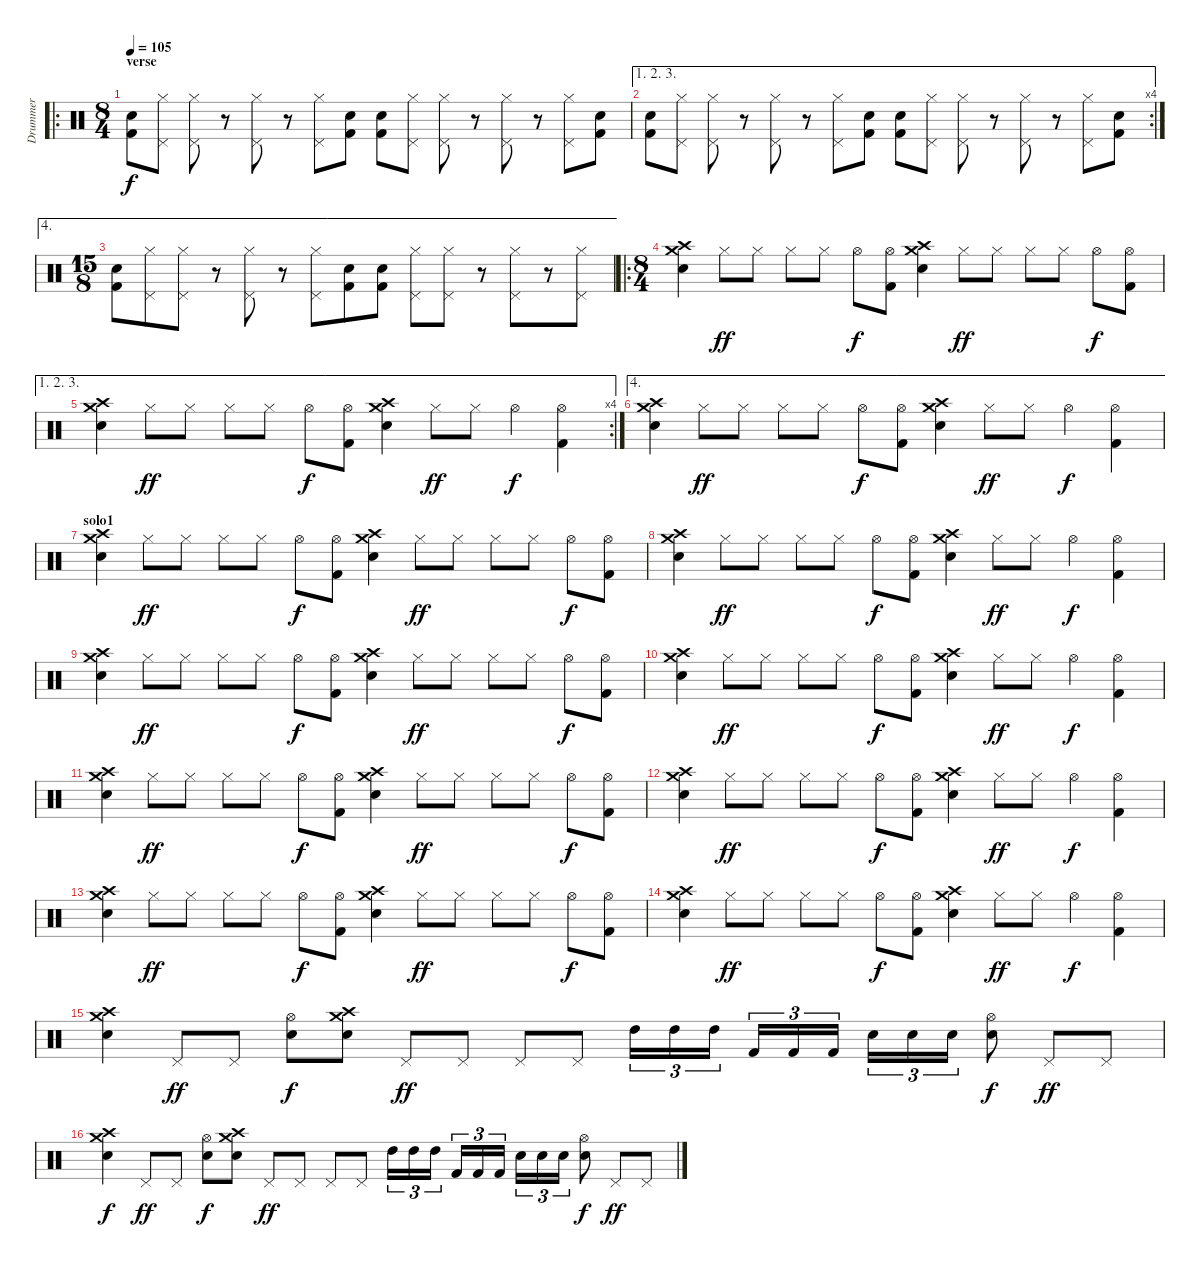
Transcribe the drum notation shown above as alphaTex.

\track ("Drummer" "Drummer") {instrument percussion}
\staff {score}
\articulation defaults
\ro
\ts (8 4)
\section ("" "verse")
\tempo 105
\clef neutral
\ks c
("Kick (hit) 2" "Electric Snare (hit)").8{dy f} ("Pedal Hi-Hat (hit)" "Hi-Hat (closed)").8 ("Hi-Hat (closed)" "Pedal Hi-Hat (hit)").8 r.8 ("Pedal Hi-Hat (hit)" "Hi-Hat (closed)").8 r.8 ("Pedal Hi-Hat (hit)" "Hi-Hat (closed)").8 ("Kick (hit) 2" "Electric Snare (hit)").8 ("Electric Snare (hit)" "Kick (hit) 2").8 ("Pedal Hi-Hat (hit)" "Hi-Hat (closed)").8 ("Hi-Hat (closed)" "Pedal Hi-Hat (hit)").8 r.8 ("Hi-Hat (closed)" "Pedal Hi-Hat (hit)").8 r.8 ("Hi-Hat (closed)" "Pedal Hi-Hat (hit)").8 ("Electric Snare (hit)" "Kick (hit) 2").8 |
\ae (1 2 3)
\rc 4
("Kick (hit) 2" "Electric Snare (hit)").8 ("Pedal Hi-Hat (hit)" "Hi-Hat (closed)").8 ("Hi-Hat (closed)" "Pedal Hi-Hat (hit)").8 r.8 ("Pedal Hi-Hat (hit)" "Hi-Hat (closed)").8 r.8 ("Pedal Hi-Hat (hit)" "Hi-Hat (closed)").8 ("Kick (hit) 2" "Electric Snare (hit)").8 ("Electric Snare (hit)" "Kick (hit) 2").8 ("Pedal Hi-Hat (hit)" "Hi-Hat (closed)").8 ("Hi-Hat (closed)" "Pedal Hi-Hat (hit)").8 r.8 ("Hi-Hat (closed)" "Pedal Hi-Hat (hit)").8 r.8 ("Hi-Hat (closed)" "Pedal Hi-Hat (hit)").8 ("Electric Snare (hit)" "Kick (hit) 2").8 |
\ae 4
\ts (15 8)
("Kick (hit) 2" "Electric Snare (hit)").8 ("Pedal Hi-Hat (hit)" "Hi-Hat (closed)").8 ("Hi-Hat (closed)" "Pedal Hi-Hat (hit)").8 r.8 ("Pedal Hi-Hat (hit)" "Hi-Hat (closed)").8 r.8 ("Pedal Hi-Hat (hit)" "Hi-Hat (closed)").8 ("Kick (hit) 2" "Electric Snare (hit)").8 ("Electric Snare (hit)" "Kick (hit) 2").8 ("Pedal Hi-Hat (hit)" "Hi-Hat (closed)").8 ("Hi-Hat (closed)" "Pedal Hi-Hat (hit)").8 r.8 ("Hi-Hat (closed)" "Pedal Hi-Hat (hit)").8 r.8 ("Hi-Hat (closed)" "Pedal Hi-Hat (hit)").8 |
\ro
\ts (8 4)
("Electric Snare (hit)" "Crash medium (hit)" "Crash high (hit)").4 "Hi-Hat (closed)".8{dy ff} "Hi-Hat (closed)".8 "Hi-Hat (closed)".8 "Hi-Hat (closed)".8 "Hi-Hat (open)".8{dy f} ("Hi-Hat (open)" "Kick (hit) 2").8 ("Crash high (hit)" "Crash medium (hit)" "Electric Snare (hit)").4 "Hi-Hat (closed)".8{dy ff} "Hi-Hat (closed)".8 "Hi-Hat (closed)".8 "Hi-Hat (closed)".8 "Hi-Hat (open)".8{dy f} ("Kick (hit) 2" "Hi-Hat (open)").8 |
\ae (1 2 3)
\rc 4
("Electric Snare (hit)" "Crash medium (hit)" "Crash high (hit)").4 "Hi-Hat (closed)".8{dy ff} "Hi-Hat (closed)".8 "Hi-Hat (closed)".8 "Hi-Hat (closed)".8 "Hi-Hat (open)".8{dy f} ("Hi-Hat (open)" "Kick (hit) 2").8 ("Crash high (hit)" "Crash medium (hit)" "Electric Snare (hit)").4 "Hi-Hat (closed)".8{dy ff} "Hi-Hat (closed)".8 "Hi-Hat (open)".4{dy f} ("Kick (hit) 2" "Hi-Hat (open)").4 |
\ae 4
("Electric Snare (hit)" "Crash medium (hit)" "Crash high (hit)").4 "Hi-Hat (closed)".8{dy ff} "Hi-Hat (closed)".8 "Hi-Hat (closed)".8 "Hi-Hat (closed)".8 "Hi-Hat (open)".8{dy f} ("Hi-Hat (open)" "Kick (hit) 2").8 ("Crash high (hit)" "Crash medium (hit)" "Electric Snare (hit)").4 "Hi-Hat (closed)".8{dy ff} "Hi-Hat (closed)".8 "Hi-Hat (open)".4{dy f} ("Kick (hit) 2" "Hi-Hat (open)").4 |
\section ("" "solo1")
("Electric Snare (hit)" "Crash medium (hit)" "Crash high (hit)").4 "Hi-Hat (closed)".8{dy ff} "Hi-Hat (closed)".8 "Hi-Hat (closed)".8 "Hi-Hat (closed)".8 "Hi-Hat (open)".8{dy f} ("Hi-Hat (open)" "Kick (hit) 2").8 ("Crash high (hit)" "Crash medium (hit)" "Electric Snare (hit)").4 "Hi-Hat (closed)".8{dy ff} "Hi-Hat (closed)".8 "Hi-Hat (closed)".8 "Hi-Hat (closed)".8 "Hi-Hat (open)".8{dy f} ("Kick (hit) 2" "Hi-Hat (open)").8 |
("Electric Snare (hit)" "Crash medium (hit)" "Crash high (hit)").4 "Hi-Hat (closed)".8{dy ff} "Hi-Hat (closed)".8 "Hi-Hat (closed)".8 "Hi-Hat (closed)".8 "Hi-Hat (open)".8{dy f} ("Hi-Hat (open)" "Kick (hit) 2").8 ("Crash high (hit)" "Crash medium (hit)" "Electric Snare (hit)").4 "Hi-Hat (closed)".8{dy ff} "Hi-Hat (closed)".8 "Hi-Hat (open)".4{dy f} ("Kick (hit) 2" "Hi-Hat (open)").4 |
("Electric Snare (hit)" "Crash medium (hit)" "Crash high (hit)").4 "Hi-Hat (closed)".8{dy ff} "Hi-Hat (closed)".8 "Hi-Hat (closed)".8 "Hi-Hat (closed)".8 "Hi-Hat (open)".8{dy f} ("Hi-Hat (open)" "Kick (hit) 2").8 ("Crash high (hit)" "Crash medium (hit)" "Electric Snare (hit)").4 "Hi-Hat (closed)".8{dy ff} "Hi-Hat (closed)".8 "Hi-Hat (closed)".8 "Hi-Hat (closed)".8 "Hi-Hat (open)".8{dy f} ("Kick (hit) 2" "Hi-Hat (open)").8 |
("Electric Snare (hit)" "Crash medium (hit)" "Crash high (hit)").4 "Hi-Hat (closed)".8{dy ff} "Hi-Hat (closed)".8 "Hi-Hat (closed)".8 "Hi-Hat (closed)".8 "Hi-Hat (open)".8{dy f} ("Hi-Hat (open)" "Kick (hit) 2").8 ("Crash high (hit)" "Crash medium (hit)" "Electric Snare (hit)").4 "Hi-Hat (closed)".8{dy ff} "Hi-Hat (closed)".8 "Hi-Hat (open)".4{dy f} ("Kick (hit) 2" "Hi-Hat (open)").4 |
("Electric Snare (hit)" "Crash medium (hit)" "Crash high (hit)").4 "Hi-Hat (closed)".8{dy ff} "Hi-Hat (closed)".8 "Hi-Hat (closed)".8 "Hi-Hat (closed)".8 "Hi-Hat (open)".8{dy f} ("Hi-Hat (open)" "Kick (hit) 2").8 ("Crash high (hit)" "Crash medium (hit)" "Electric Snare (hit)").4 "Hi-Hat (closed)".8{dy ff} "Hi-Hat (closed)".8 "Hi-Hat (closed)".8 "Hi-Hat (closed)".8 "Hi-Hat (open)".8{dy f} ("Kick (hit) 2" "Hi-Hat (open)").8 |
("Electric Snare (hit)" "Crash medium (hit)" "Crash high (hit)").4 "Hi-Hat (closed)".8{dy ff} "Hi-Hat (closed)".8 "Hi-Hat (closed)".8 "Hi-Hat (closed)".8 "Hi-Hat (open)".8{dy f} ("Hi-Hat (open)" "Kick (hit) 2").8 ("Crash high (hit)" "Crash medium (hit)" "Electric Snare (hit)").4 "Hi-Hat (closed)".8{dy ff} "Hi-Hat (closed)".8 "Hi-Hat (open)".4{dy f} ("Kick (hit) 2" "Hi-Hat (open)").4 |
("Electric Snare (hit)" "Crash medium (hit)" "Crash high (hit)").4 "Hi-Hat (closed)".8{dy ff} "Hi-Hat (closed)".8 "Hi-Hat (closed)".8 "Hi-Hat (closed)".8 "Hi-Hat (open)".8{dy f} ("Hi-Hat (open)" "Kick (hit) 2").8 ("Crash high (hit)" "Crash medium (hit)" "Electric Snare (hit)").4 "Hi-Hat (closed)".8{dy ff} "Hi-Hat (closed)".8 "Hi-Hat (closed)".8 "Hi-Hat (closed)".8 "Hi-Hat (open)".8{dy f} ("Kick (hit) 2" "Hi-Hat (open)").8 |
("Electric Snare (hit)" "Crash medium (hit)" "Crash high (hit)").4 "Hi-Hat (closed)".8{dy ff} "Hi-Hat (closed)".8 "Hi-Hat (closed)".8 "Hi-Hat (closed)".8 "Hi-Hat (open)".8{dy f} ("Hi-Hat (open)" "Kick (hit) 2").8 ("Crash high (hit)" "Crash medium (hit)" "Electric Snare (hit)").4 "Hi-Hat (closed)".8{dy ff} "Hi-Hat (closed)".8 "Hi-Hat (open)".4{dy f} ("Kick (hit) 2" "Hi-Hat (open)").4 |
("Electric Snare (hit)" "Crash medium (hit)" "Crash high (hit)").4 "Pedal Hi-Hat (hit)".8{dy ff} "Pedal Hi-Hat (hit)".8 ("Hi-Hat (open)" "Electric Snare (hit)").8{dy f} ("Crash medium (hit)" "Crash high (hit)" "Electric Snare (hit)").8 "Pedal Hi-Hat (hit)".8{dy ff} "Pedal Hi-Hat (hit)".8 "Pedal Hi-Hat (hit)".8 "Pedal Hi-Hat (hit)".8 "High Tom (hit)".16{tu (3 2)} "High Tom (hit)".16{tu (3 2)} "High Tom (hit)".16{tu (3 2)} "Kick (hit) 2".16{tu (3 2)} "Kick (hit) 2".16{tu (3 2)} "Kick (hit) 2".16{tu (3 2)} "Electric Snare (hit)".16{tu (3 2)} "Electric Snare (hit)".16{tu (3 2)} "Electric Snare (hit)".16{tu (3 2)} ("Hi-Hat (open)" "Electric Snare (hit)").8{dy f} "Pedal Hi-Hat (hit)".8{dy ff} "Pedal Hi-Hat (hit)".8 |
("Electric Snare (hit)" "Crash medium (hit)" "Crash high (hit)").4{dy f} "Pedal Hi-Hat (hit)".8{dy ff} "Pedal Hi-Hat (hit)".8 ("Hi-Hat (open)" "Electric Snare (hit)").8{dy f} ("Crash medium (hit)" "Crash high (hit)" "Electric Snare (hit)").8 "Pedal Hi-Hat (hit)".8{dy ff} "Pedal Hi-Hat (hit)".8 "Pedal Hi-Hat (hit)".8 "Pedal Hi-Hat (hit)".8 "High Tom (hit)".16{tu (3 2)} "High Tom (hit)".16{tu (3 2)} "High Tom (hit)".16{tu (3 2)} "Kick (hit) 2".16{tu (3 2)} "Kick (hit) 2".16{tu (3 2)} "Kick (hit) 2".16{tu (3 2)} "Electric Snare (hit)".16{tu (3 2)} "Electric Snare (hit)".16{tu (3 2)} "Electric Snare (hit)".16{tu (3 2)} ("Hi-Hat (open)" "Electric Snare (hit)").8{dy f} "Pedal Hi-Hat (hit)".8{dy ff} "Pedal Hi-Hat (hit)".8
